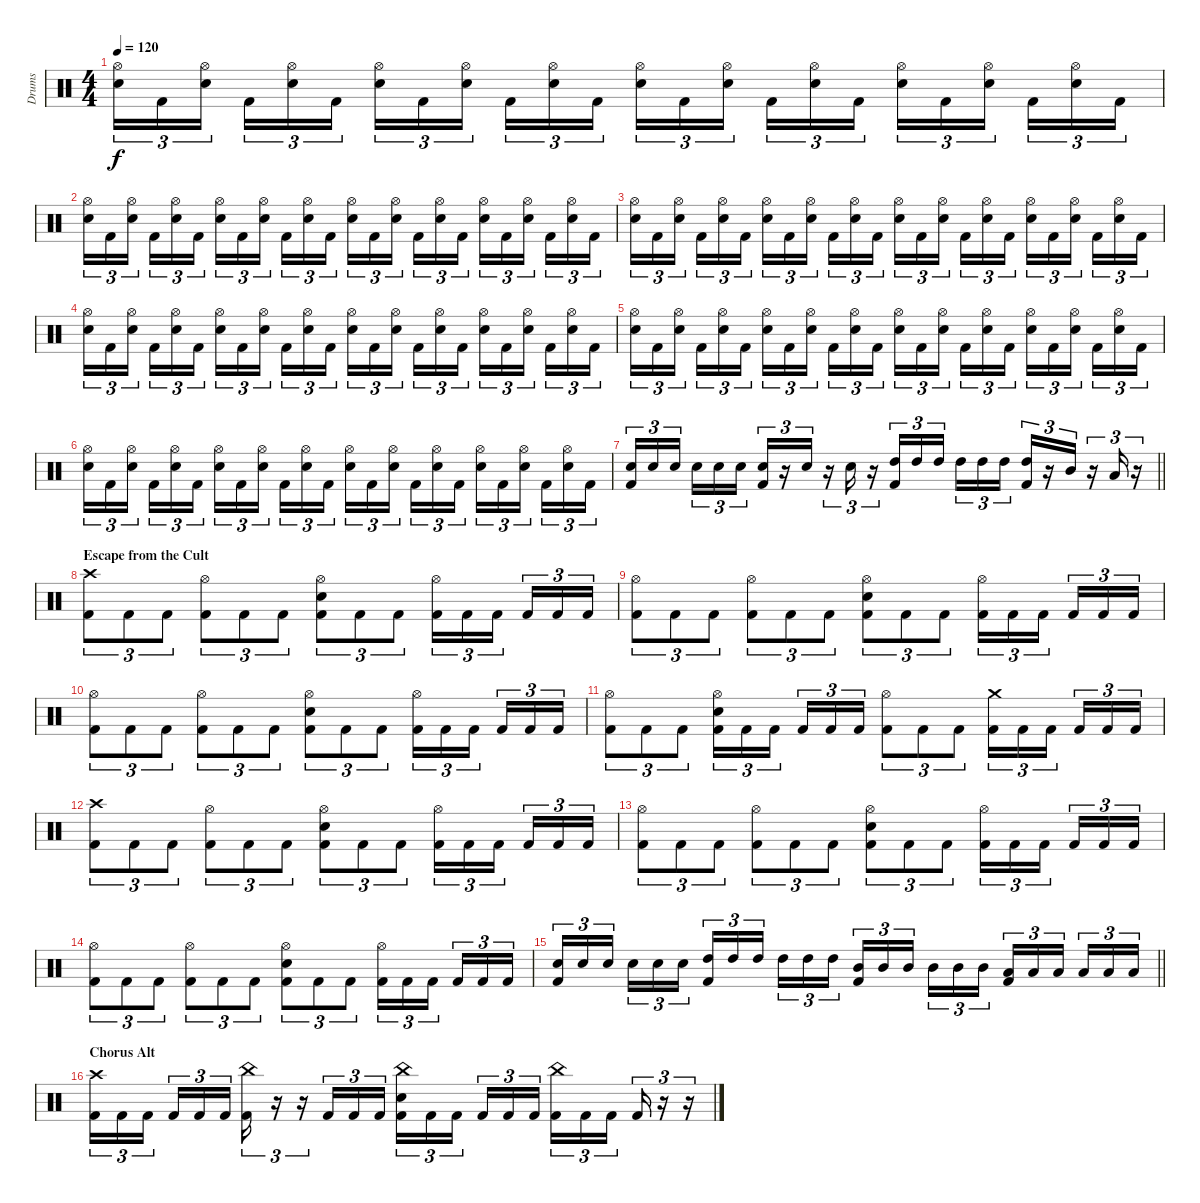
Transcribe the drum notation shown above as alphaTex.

\track ("Drums" "Drums") {instrument percussion}
\staff {score}
\articulation defaults
\ts (4 4)
\tempo 120
\clef neutral
\ks c
("Hi-Hat (open)" "Snare (hit) 2").16{tu (3 2) dy f} "Kick (hit) 2".16{tu (3 2)} ("Hi-Hat (open)" "Snare (hit) 2").16{tu (3 2) beam splitsecondary} "Kick (hit) 2".16{tu (3 2)} ("Hi-Hat (open)" "Snare (hit) 2").16{tu (3 2)} "Kick (hit) 2".16{tu (3 2)} ("Hi-Hat (open)" "Snare (hit) 2").16{tu (3 2)} "Kick (hit) 2".16{tu (3 2)} ("Hi-Hat (open)" "Snare (hit) 2").16{tu (3 2) beam splitsecondary} "Kick (hit) 2".16{tu (3 2)} ("Hi-Hat (open)" "Snare (hit) 2").16{tu (3 2)} "Kick (hit) 2".16{tu (3 2)} ("Hi-Hat (open)" "Snare (hit) 2").16{tu (3 2)} "Kick (hit) 2".16{tu (3 2)} ("Hi-Hat (open)" "Snare (hit) 2").16{tu (3 2) beam splitsecondary} "Kick (hit) 2".16{tu (3 2)} ("Hi-Hat (open)" "Snare (hit) 2").16{tu (3 2)} "Kick (hit) 2".16{tu (3 2)} ("Hi-Hat (open)" "Snare (hit) 2").16{tu (3 2)} "Kick (hit) 2".16{tu (3 2)} ("Hi-Hat (open)" "Snare (hit) 2").16{tu (3 2) beam splitsecondary} "Kick (hit) 2".16{tu (3 2)} ("Hi-Hat (open)" "Snare (hit) 2").16{tu (3 2)} "Kick (hit) 2".16{tu (3 2)} |
("Hi-Hat (open)" "Snare (hit) 2").16{tu (3 2)} "Kick (hit) 2".16{tu (3 2)} ("Hi-Hat (open)" "Snare (hit) 2").16{tu (3 2) beam splitsecondary} "Kick (hit) 2".16{tu (3 2)} ("Hi-Hat (open)" "Snare (hit) 2").16{tu (3 2)} "Kick (hit) 2".16{tu (3 2)} ("Hi-Hat (open)" "Snare (hit) 2").16{tu (3 2)} "Kick (hit) 2".16{tu (3 2)} ("Hi-Hat (open)" "Snare (hit) 2").16{tu (3 2) beam splitsecondary} "Kick (hit) 2".16{tu (3 2)} ("Hi-Hat (open)" "Snare (hit) 2").16{tu (3 2)} "Kick (hit) 2".16{tu (3 2)} ("Hi-Hat (open)" "Snare (hit) 2").16{tu (3 2)} "Kick (hit) 2".16{tu (3 2)} ("Hi-Hat (open)" "Snare (hit) 2").16{tu (3 2) beam splitsecondary} "Kick (hit) 2".16{tu (3 2)} ("Hi-Hat (open)" "Snare (hit) 2").16{tu (3 2)} "Kick (hit) 2".16{tu (3 2)} ("Hi-Hat (open)" "Snare (hit) 2").16{tu (3 2)} "Kick (hit) 2".16{tu (3 2)} ("Hi-Hat (open)" "Snare (hit) 2").16{tu (3 2) beam splitsecondary} "Kick (hit) 2".16{tu (3 2)} ("Hi-Hat (open)" "Snare (hit) 2").16{tu (3 2)} "Kick (hit) 2".16{tu (3 2)} |
("Hi-Hat (open)" "Snare (hit) 2").16{tu (3 2)} "Kick (hit) 2".16{tu (3 2)} ("Hi-Hat (open)" "Snare (hit) 2").16{tu (3 2) beam splitsecondary} "Kick (hit) 2".16{tu (3 2)} ("Hi-Hat (open)" "Snare (hit) 2").16{tu (3 2)} "Kick (hit) 2".16{tu (3 2)} ("Hi-Hat (open)" "Snare (hit) 2").16{tu (3 2)} "Kick (hit) 2".16{tu (3 2)} ("Hi-Hat (open)" "Snare (hit) 2").16{tu (3 2) beam splitsecondary} "Kick (hit) 2".16{tu (3 2)} ("Hi-Hat (open)" "Snare (hit) 2").16{tu (3 2)} "Kick (hit) 2".16{tu (3 2)} ("Hi-Hat (open)" "Snare (hit) 2").16{tu (3 2)} "Kick (hit) 2".16{tu (3 2)} ("Hi-Hat (open)" "Snare (hit) 2").16{tu (3 2) beam splitsecondary} "Kick (hit) 2".16{tu (3 2)} ("Hi-Hat (open)" "Snare (hit) 2").16{tu (3 2)} "Kick (hit) 2".16{tu (3 2)} ("Hi-Hat (open)" "Snare (hit) 2").16{tu (3 2)} "Kick (hit) 2".16{tu (3 2)} ("Hi-Hat (open)" "Snare (hit) 2").16{tu (3 2) beam splitsecondary} "Kick (hit) 2".16{tu (3 2)} ("Hi-Hat (open)" "Snare (hit) 2").16{tu (3 2)} "Kick (hit) 2".16{tu (3 2)} |
("Hi-Hat (open)" "Snare (hit) 2").16{tu (3 2)} "Kick (hit) 2".16{tu (3 2)} ("Hi-Hat (open)" "Snare (hit) 2").16{tu (3 2) beam splitsecondary} "Kick (hit) 2".16{tu (3 2)} ("Hi-Hat (open)" "Snare (hit) 2").16{tu (3 2)} "Kick (hit) 2".16{tu (3 2)} ("Hi-Hat (open)" "Snare (hit) 2").16{tu (3 2)} "Kick (hit) 2".16{tu (3 2)} ("Hi-Hat (open)" "Snare (hit) 2").16{tu (3 2) beam splitsecondary} "Kick (hit) 2".16{tu (3 2)} ("Hi-Hat (open)" "Snare (hit) 2").16{tu (3 2)} "Kick (hit) 2".16{tu (3 2)} ("Hi-Hat (open)" "Snare (hit) 2").16{tu (3 2)} "Kick (hit) 2".16{tu (3 2)} ("Hi-Hat (open)" "Snare (hit) 2").16{tu (3 2) beam splitsecondary} "Kick (hit) 2".16{tu (3 2)} ("Hi-Hat (open)" "Snare (hit) 2").16{tu (3 2)} "Kick (hit) 2".16{tu (3 2)} ("Hi-Hat (open)" "Snare (hit) 2").16{tu (3 2)} "Kick (hit) 2".16{tu (3 2)} ("Hi-Hat (open)" "Snare (hit) 2").16{tu (3 2) beam splitsecondary} "Kick (hit) 2".16{tu (3 2)} ("Hi-Hat (open)" "Snare (hit) 2").16{tu (3 2)} "Kick (hit) 2".16{tu (3 2)} |
("Hi-Hat (open)" "Snare (hit) 2").16{tu (3 2)} "Kick (hit) 2".16{tu (3 2)} ("Hi-Hat (open)" "Snare (hit) 2").16{tu (3 2) beam splitsecondary} "Kick (hit) 2".16{tu (3 2)} ("Hi-Hat (open)" "Snare (hit) 2").16{tu (3 2)} "Kick (hit) 2".16{tu (3 2)} ("Hi-Hat (open)" "Snare (hit) 2").16{tu (3 2)} "Kick (hit) 2".16{tu (3 2)} ("Hi-Hat (open)" "Snare (hit) 2").16{tu (3 2) beam splitsecondary} "Kick (hit) 2".16{tu (3 2)} ("Hi-Hat (open)" "Snare (hit) 2").16{tu (3 2)} "Kick (hit) 2".16{tu (3 2)} ("Hi-Hat (open)" "Snare (hit) 2").16{tu (3 2)} "Kick (hit) 2".16{tu (3 2)} ("Hi-Hat (open)" "Snare (hit) 2").16{tu (3 2) beam splitsecondary} "Kick (hit) 2".16{tu (3 2)} ("Hi-Hat (open)" "Snare (hit) 2").16{tu (3 2)} "Kick (hit) 2".16{tu (3 2)} ("Hi-Hat (open)" "Snare (hit) 2").16{tu (3 2)} "Kick (hit) 2".16{tu (3 2)} ("Hi-Hat (open)" "Snare (hit) 2").16{tu (3 2) beam splitsecondary} "Kick (hit) 2".16{tu (3 2)} ("Hi-Hat (open)" "Snare (hit) 2").16{tu (3 2)} "Kick (hit) 2".16{tu (3 2)} |
("Hi-Hat (open)" "Snare (hit) 2").16{tu (3 2)} "Kick (hit) 2".16{tu (3 2)} ("Hi-Hat (open)" "Snare (hit) 2").16{tu (3 2) beam splitsecondary} "Kick (hit) 2".16{tu (3 2)} ("Hi-Hat (open)" "Snare (hit) 2").16{tu (3 2)} "Kick (hit) 2".16{tu (3 2)} ("Hi-Hat (open)" "Snare (hit) 2").16{tu (3 2)} "Kick (hit) 2".16{tu (3 2)} ("Hi-Hat (open)" "Snare (hit) 2").16{tu (3 2) beam splitsecondary} "Kick (hit) 2".16{tu (3 2)} ("Hi-Hat (open)" "Snare (hit) 2").16{tu (3 2)} "Kick (hit) 2".16{tu (3 2)} ("Hi-Hat (open)" "Snare (hit) 2").16{tu (3 2)} "Kick (hit) 2".16{tu (3 2)} ("Hi-Hat (open)" "Snare (hit) 2").16{tu (3 2) beam splitsecondary} "Kick (hit) 2".16{tu (3 2)} ("Hi-Hat (open)" "Snare (hit) 2").16{tu (3 2)} "Kick (hit) 2".16{tu (3 2)} ("Hi-Hat (open)" "Snare (hit) 2").16{tu (3 2)} "Kick (hit) 2".16{tu (3 2)} ("Hi-Hat (open)" "Snare (hit) 2").16{tu (3 2) beam splitsecondary} "Kick (hit) 2".16{tu (3 2)} ("Hi-Hat (open)" "Snare (hit) 2").16{tu (3 2)} "Kick (hit) 2".16{tu (3 2)} |
\barLineRight lightlight
("Snare (hit) 2" "Kick (hit) 2").16{tu (3 2)} "Snare (hit) 2".16{tu (3 2)} "Snare (hit) 2".16{tu (3 2) beam splitsecondary} "Snare (hit) 2".16{tu (3 2)} "Snare (hit) 2".16{tu (3 2)} "Snare (hit) 2".16{tu (3 2)} ("Snare (hit) 2" "Kick (hit) 2").16{tu (3 2)} r.16{tu (3 2)} "Snare (hit) 2".16{tu (3 2)} r.16{tu (3 2)} "Snare (hit) 2".16{tu (3 2)} r.16{tu (3 2)} ("High Tom (hit)" "Kick (hit) 2").16{tu (3 2)} "High Tom (hit)".16{tu (3 2)} "High Tom (hit)".16{tu (3 2) beam splitsecondary} "High Tom (hit)".16{tu (3 2)} "High Tom (hit)".16{tu (3 2)} "High Tom (hit)".16{tu (3 2)} ("High Tom (hit)" "Kick (hit) 2").16{tu (3 2)} r.16{tu (3 2)} "Mid Tom (hit)".16{tu (3 2)} r.16{tu (3 2)} "Low Tom (hit)".16{tu (3 2)} r.16{tu (3 2)} |
\section ("" "Escape from the Cult")
("Crash high (hit)" "Kick (hit) 2").8{tu (3 2)} "Kick (hit) 2".8{tu (3 2)} "Kick (hit) 2".8{tu (3 2)} ("Hi-Hat (open)" "Kick (hit) 2").8{tu (3 2)} "Kick (hit) 2".8{tu (3 2)} "Kick (hit) 2".8{tu (3 2)} ("Hi-Hat (open)" "Snare (hit) 2" "Kick (hit) 2").8{tu (3 2)} "Kick (hit) 2".8{tu (3 2)} "Kick (hit) 2".8{tu (3 2)} ("Hi-Hat (open)" "Kick (hit) 2").16{tu (3 2)} "Kick (hit) 2".16{tu (3 2)} "Kick (hit) 2".16{tu (3 2) beam splitsecondary} "Kick (hit) 2".16{tu (3 2)} "Kick (hit) 2".16{tu (3 2)} "Kick (hit) 2".16{tu (3 2)} |
("Hi-Hat (open)" "Kick (hit) 2").8{tu (3 2)} "Kick (hit) 2".8{tu (3 2)} "Kick (hit) 2".8{tu (3 2)} ("Hi-Hat (open)" "Kick (hit) 2").8{tu (3 2)} "Kick (hit) 2".8{tu (3 2)} "Kick (hit) 2".8{tu (3 2)} ("Hi-Hat (open)" "Snare (hit) 2" "Kick (hit) 2").8{tu (3 2)} "Kick (hit) 2".8{tu (3 2)} "Kick (hit) 2".8{tu (3 2)} ("Hi-Hat (open)" "Kick (hit) 2").16{tu (3 2)} "Kick (hit) 2".16{tu (3 2)} "Kick (hit) 2".16{tu (3 2) beam splitsecondary} "Kick (hit) 2".16{tu (3 2)} "Kick (hit) 2".16{tu (3 2)} "Kick (hit) 2".16{tu (3 2)} |
("Hi-Hat (open)" "Kick (hit) 2").8{tu (3 2)} "Kick (hit) 2".8{tu (3 2)} "Kick (hit) 2".8{tu (3 2)} ("Hi-Hat (open)" "Kick (hit) 2").8{tu (3 2)} "Kick (hit) 2".8{tu (3 2)} "Kick (hit) 2".8{tu (3 2)} ("Hi-Hat (open)" "Snare (hit) 2" "Kick (hit) 2").8{tu (3 2)} "Kick (hit) 2".8{tu (3 2)} "Kick (hit) 2".8{tu (3 2)} ("Hi-Hat (open)" "Kick (hit) 2").16{tu (3 2)} "Kick (hit) 2".16{tu (3 2)} "Kick (hit) 2".16{tu (3 2) beam splitsecondary} "Kick (hit) 2".16{tu (3 2)} "Kick (hit) 2".16{tu (3 2)} "Kick (hit) 2".16{tu (3 2)} |
("Hi-Hat (open)" "Kick (hit) 2").8{tu (3 2)} "Kick (hit) 2".8{tu (3 2)} "Kick (hit) 2".8{tu (3 2)} ("Hi-Hat (open)" "Snare (hit) 2" "Kick (hit) 2").16{tu (3 2)} "Kick (hit) 2".16{tu (3 2)} "Kick (hit) 2".16{tu (3 2) beam splitsecondary} "Kick (hit) 2".16{tu (3 2)} "Kick (hit) 2".16{tu (3 2)} "Kick (hit) 2".16{tu (3 2)} ("Hi-Hat (open)" "Kick (hit) 2").8{tu (3 2)} "Kick (hit) 2".8{tu (3 2)} "Kick (hit) 2".8{tu (3 2)} ("Crash medium (hit)" "Kick (hit) 2").16{tu (3 2)} "Kick (hit) 2".16{tu (3 2)} "Kick (hit) 2".16{tu (3 2) beam splitsecondary} "Kick (hit) 2".16{tu (3 2)} "Kick (hit) 2".16{tu (3 2)} "Kick (hit) 2".16{tu (3 2)} |
("Crash high (hit)" "Kick (hit) 2").8{tu (3 2)} "Kick (hit) 2".8{tu (3 2)} "Kick (hit) 2".8{tu (3 2)} ("Hi-Hat (open)" "Kick (hit) 2").8{tu (3 2)} "Kick (hit) 2".8{tu (3 2)} "Kick (hit) 2".8{tu (3 2)} ("Hi-Hat (open)" "Snare (hit) 2" "Kick (hit) 2").8{tu (3 2)} "Kick (hit) 2".8{tu (3 2)} "Kick (hit) 2".8{tu (3 2)} ("Hi-Hat (open)" "Kick (hit) 2").16{tu (3 2)} "Kick (hit) 2".16{tu (3 2)} "Kick (hit) 2".16{tu (3 2) beam splitsecondary} "Kick (hit) 2".16{tu (3 2)} "Kick (hit) 2".16{tu (3 2)} "Kick (hit) 2".16{tu (3 2)} |
("Hi-Hat (open)" "Kick (hit) 2").8{tu (3 2)} "Kick (hit) 2".8{tu (3 2)} "Kick (hit) 2".8{tu (3 2)} ("Hi-Hat (open)" "Kick (hit) 2").8{tu (3 2)} "Kick (hit) 2".8{tu (3 2)} "Kick (hit) 2".8{tu (3 2)} ("Hi-Hat (open)" "Snare (hit) 2" "Kick (hit) 2").8{tu (3 2)} "Kick (hit) 2".8{tu (3 2)} "Kick (hit) 2".8{tu (3 2)} ("Hi-Hat (open)" "Kick (hit) 2").16{tu (3 2)} "Kick (hit) 2".16{tu (3 2)} "Kick (hit) 2".16{tu (3 2) beam splitsecondary} "Kick (hit) 2".16{tu (3 2)} "Kick (hit) 2".16{tu (3 2)} "Kick (hit) 2".16{tu (3 2)} |
("Hi-Hat (open)" "Kick (hit) 2").8{tu (3 2)} "Kick (hit) 2".8{tu (3 2)} "Kick (hit) 2".8{tu (3 2)} ("Hi-Hat (open)" "Kick (hit) 2").8{tu (3 2)} "Kick (hit) 2".8{tu (3 2)} "Kick (hit) 2".8{tu (3 2)} ("Hi-Hat (open)" "Snare (hit) 2" "Kick (hit) 2").8{tu (3 2)} "Kick (hit) 2".8{tu (3 2)} "Kick (hit) 2".8{tu (3 2)} ("Hi-Hat (open)" "Kick (hit) 2").16{tu (3 2)} "Kick (hit) 2".16{tu (3 2)} "Kick (hit) 2".16{tu (3 2) beam splitsecondary} "Kick (hit) 2".16{tu (3 2)} "Kick (hit) 2".16{tu (3 2)} "Kick (hit) 2".16{tu (3 2)} |
\barLineRight lightlight
("Snare (hit) 2" "Kick (hit) 2").16{tu (3 2)} "Snare (hit) 2".16{tu (3 2)} "Snare (hit) 2".16{tu (3 2) beam splitsecondary} "Snare (hit) 2".16{tu (3 2)} "Snare (hit) 2".16{tu (3 2)} "Snare (hit) 2".16{tu (3 2)} ("High Tom (hit)" "Kick (hit) 2").16{tu (3 2)} "High Tom (hit)".16{tu (3 2)} "High Tom (hit)".16{tu (3 2) beam splitsecondary} "High Tom (hit)".16{tu (3 2)} "High Tom (hit)".16{tu (3 2)} "High Tom (hit)".16{tu (3 2)} ("Mid Tom (hit)" "Kick (hit) 2").16{tu (3 2)} "Mid Tom (hit)".16{tu (3 2)} "Mid Tom (hit)".16{tu (3 2) beam splitsecondary} "Mid Tom (hit)".16{tu (3 2)} "Mid Tom (hit)".16{tu (3 2)} "Mid Tom (hit)".16{tu (3 2)} ("Low Tom (hit)" "Kick (hit) 2").16{tu (3 2)} "Low Tom (hit)".16{tu (3 2)} "Low Tom (hit)".16{tu (3 2) beam splitsecondary} "Low Tom (hit)".16{tu (3 2)} "Low Tom (hit)".16{tu (3 2)} "Low Tom (hit)".16{tu (3 2)} |
\section ("" "Chorus Alt")
("Crash high (hit)" "Kick (hit) 2").16{tu (3 2)} "Kick (hit) 2".16{tu (3 2)} "Kick (hit) 2".16{tu (3 2) beam splitsecondary} "Kick (hit) 2".16{tu (3 2)} "Kick (hit) 2".16{tu (3 2)} "Kick (hit) 2".16{tu (3 2)} ("China (hit)" "Kick (hit) 2").16{tu (3 2)} r.16{tu (3 2)} r.16{tu (3 2)} "Kick (hit) 2".16{tu (3 2)} "Kick (hit) 2".16{tu (3 2)} "Kick (hit) 2".16{tu (3 2)} ("China (hit)" "Snare (hit) 2" "Kick (hit) 2").16{tu (3 2)} "Kick (hit) 2".16{tu (3 2)} "Kick (hit) 2".16{tu (3 2) beam splitsecondary} "Kick (hit) 2".16{tu (3 2)} "Kick (hit) 2".16{tu (3 2)} "Kick (hit) 2".16{tu (3 2)} ("China (hit)" "Kick (hit) 2").16{tu (3 2)} "Kick (hit) 2".16{tu (3 2)} "Kick (hit) 2".16{tu (3 2) beam splitsecondary} "Kick (hit) 2".16{tu (3 2)} r.16{tu (3 2)} r.16{tu (3 2)}
